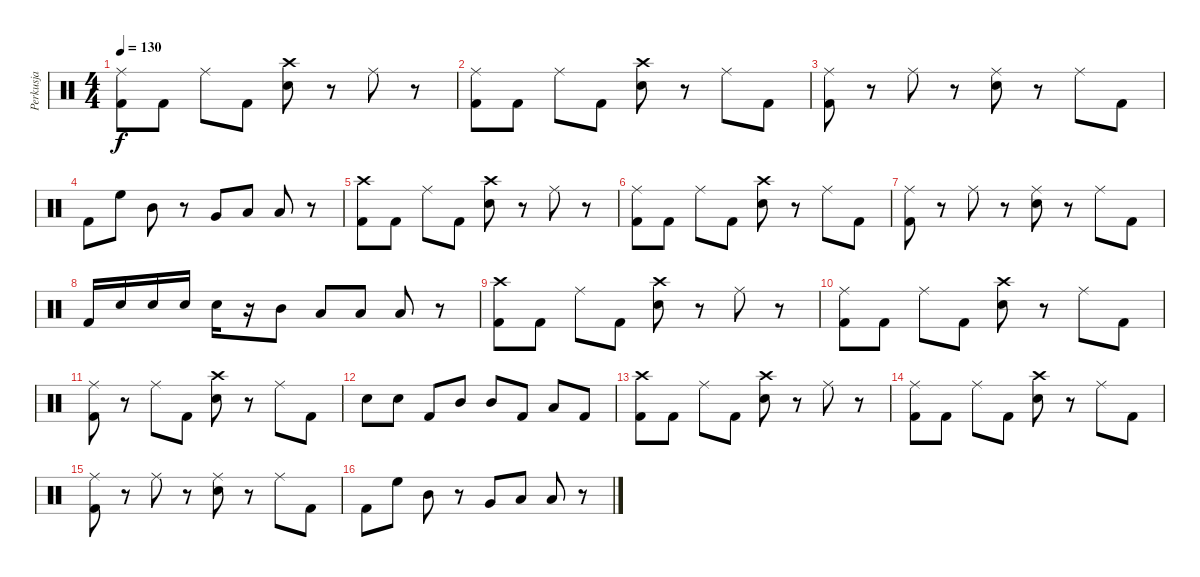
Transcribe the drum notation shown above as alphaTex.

\track ("Perkusja" "Perkusja") {instrument percussion}
\staff {score}
\articulation defaults
\ts (4 4)
\tempo 130
\clef neutral
\ks c
("Ride (middle)" "Kick (hit) 2").8{dy f} "Kick (hit) 2".8 "Ride (middle)".8 "Kick (hit) 2".8 ("Crash high (hit)" "Snare (hit) 2").8 r.8 "Ride (middle)".8 r.8 |
("Ride (middle)" "Kick (hit) 2").8 "Kick (hit) 2".8 "Ride (middle)".8 "Kick (hit) 2".8 ("Crash high (hit)" "Snare (hit) 2").8 r.8 "Ride (middle)".8 "Kick (hit) 2".8 |
("Ride (middle)" "Kick (hit) 2").8 r.8 "Ride (middle)".8 r.8 ("Ride (middle)" "Snare (hit) 2").8 r.8 "Ride (middle)".8 "Kick (hit) 2".8 |
"Kick (hit) 2".8 "High Floor Tom (hit)".8 "Mid Tom (hit)".8 r.8 "Very Low Tom (hit)".8 "Low Floor Tom (hit)".8 "Low Floor Tom (hit)".8 r.8 |
("Crash high (hit)" "Kick (hit) 2").8 "Kick (hit) 2".8 "Ride (middle)".8 "Kick (hit) 2".8 ("Crash high (hit)" "Snare (hit) 2").8 r.8 "Ride (middle)".8 r.8 |
("Ride (middle)" "Kick (hit) 2").8 "Kick (hit) 2".8 "Ride (middle)".8 "Kick (hit) 2".8 ("Crash high (hit)" "Snare (hit) 2").8 r.8 "Ride (middle)".8 "Kick (hit) 2".8 |
("Ride (middle)" "Kick (hit) 2").8 r.8 "Ride (middle)".8 r.8 ("Ride (middle)" "Snare (hit) 2").8 r.8 "Ride (middle)".8 "Kick (hit) 2".8 |
"Kick (hit) 2".16 "Snare (hit) 2".16 "Snare (hit) 2".16 "Snare (hit) 2".16 "Snare (hit) 2".16 r.16 "Mid Tom (hit)".8 "Low Tom (hit)".8 "Low Tom (hit)".8 "Low Floor Tom (hit)".8 r.8 |
("Crash high (hit)" "Kick (hit) 2").8 "Kick (hit) 2".8 "Ride (middle)".8 "Kick (hit) 2".8 ("Crash high (hit)" "Snare (hit) 2").8 r.8 "Ride (middle)".8 r.8 |
("Ride (middle)" "Kick (hit) 2").8 "Kick (hit) 2".8 "Ride (middle)".8 "Kick (hit) 2".8 ("Crash high (hit)" "Snare (hit) 2").8 r.8 "Ride (middle)".8 "Kick (hit) 2".8 |
("Ride (middle)" "Kick (hit) 2").8 r.8 "Ride (middle)".8 "Kick (hit) 2".8 ("Crash high (hit)" "Snare (hit) 2").8 r.8 "Ride (middle)".8 "Kick (hit) 2".8 |
"Snare (hit) 2".8 "Snare (hit) 2".8 "Kick (hit) 2".8 "Mid Tom (hit)".8 "Mid Tom (hit)".8 "Kick (hit) 2".8 "Low Tom (hit)".8 "Kick (hit) 2".8 |
("Crash high (hit)" "Kick (hit) 2").8 "Kick (hit) 2".8 "Ride (middle)".8 "Kick (hit) 2".8 ("Crash high (hit)" "Snare (hit) 2").8 r.8 "Ride (middle)".8 r.8 |
("Ride (middle)" "Kick (hit) 2").8 "Kick (hit) 2".8 "Ride (middle)".8 "Kick (hit) 2".8 ("Crash high (hit)" "Snare (hit) 2").8 r.8 "Ride (middle)".8 "Kick (hit) 2".8 |
("Ride (middle)" "Kick (hit) 2").8 r.8 "Ride (middle)".8 r.8 ("Ride (middle)" "Snare (hit) 2").8 r.8 "Ride (middle)".8 "Kick (hit) 2".8 |
"Kick (hit) 2".8 "High Floor Tom (hit)".8 "Mid Tom (hit)".8 r.8 "Very Low Tom (hit)".8 "Low Floor Tom (hit)".8 "Low Floor Tom (hit)".8 r.8
